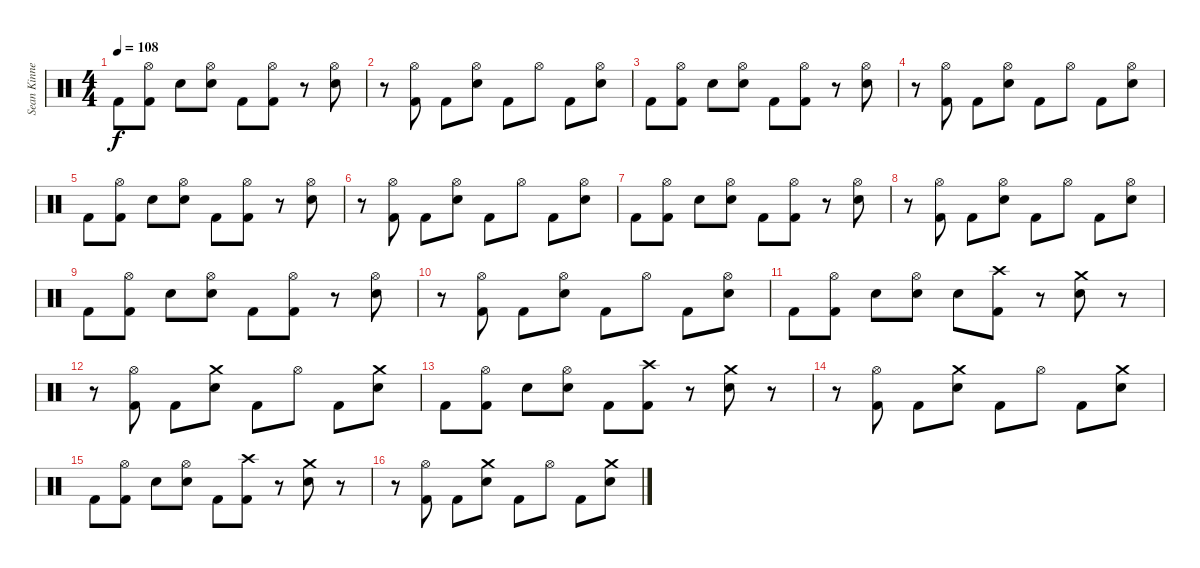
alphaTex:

\track ("Sean Kinney" "Sean Kinne") {instrument percussion}
\staff {score}
\articulation defaults
\ts (4 4)
\tempo 108
\clef neutral
\ks c "Kick (hit) 2".8{dy f}
("Hi-Hat (open)" "Kick (hit) 2").8 "Electric Snare (hit)".8 ("Hi-Hat (open)" "Electric Snare (hit)").8 "Kick (hit) 2".8 ("Hi-Hat (open)" "Kick (hit) 2").8 r.8 ("Hi-Hat (open)" "Electric Snare (hit)").8 |
r.8 ("Hi-Hat (open)" "Kick (hit) 2").8 "Kick (hit) 2".8 ("Hi-Hat (open)" "Electric Snare (hit)").8 "Kick (hit) 2".8 "Hi-Hat (open)".8 "Kick (hit) 2".8 ("Hi-Hat (open)" "Electric Snare (hit)").8 |
"Kick (hit) 2".8 ("Hi-Hat (open)" "Kick (hit) 2").8 "Electric Snare (hit)".8 ("Hi-Hat (open)" "Electric Snare (hit)").8 "Kick (hit) 2".8 ("Hi-Hat (open)" "Kick (hit) 2").8 r.8 ("Hi-Hat (open)" "Electric Snare (hit)").8 |
r.8 ("Hi-Hat (open)" "Kick (hit) 2").8 "Kick (hit) 2".8 ("Hi-Hat (open)" "Electric Snare (hit)").8 "Kick (hit) 2".8 "Hi-Hat (open)".8 "Kick (hit) 2".8 ("Hi-Hat (open)" "Electric Snare (hit)").8 |
"Kick (hit) 2".8 ("Hi-Hat (open)" "Kick (hit) 2").8 "Electric Snare (hit)".8 ("Hi-Hat (open)" "Electric Snare (hit)").8 "Kick (hit) 2".8 ("Hi-Hat (open)" "Kick (hit) 2").8 r.8 ("Hi-Hat (open)" "Electric Snare (hit)").8 |
r.8 ("Hi-Hat (open)" "Kick (hit) 2").8 "Kick (hit) 2".8 ("Hi-Hat (open)" "Electric Snare (hit)").8 "Kick (hit) 2".8 "Hi-Hat (open)".8 "Kick (hit) 2".8 ("Hi-Hat (open)" "Electric Snare (hit)").8 |
"Kick (hit) 2".8 ("Hi-Hat (open)" "Kick (hit) 2").8 "Electric Snare (hit)".8 ("Hi-Hat (open)" "Electric Snare (hit)").8 "Kick (hit) 2".8 ("Hi-Hat (open)" "Kick (hit) 2").8 r.8 ("Hi-Hat (open)" "Electric Snare (hit)").8 |
r.8 ("Hi-Hat (open)" "Kick (hit) 2").8 "Kick (hit) 2".8 ("Hi-Hat (open)" "Electric Snare (hit)").8 "Kick (hit) 2".8 "Hi-Hat (open)".8 "Kick (hit) 2".8 ("Hi-Hat (open)" "Electric Snare (hit)").8 |
"Kick (hit) 2".8 ("Hi-Hat (open)" "Kick (hit) 2").8 "Electric Snare (hit)".8 ("Hi-Hat (open)" "Electric Snare (hit)").8 "Kick (hit) 2".8 ("Hi-Hat (open)" "Kick (hit) 2").8 r.8 ("Hi-Hat (open)" "Electric Snare (hit)").8 |
r.8 ("Hi-Hat (open)" "Kick (hit) 2").8 "Kick (hit) 2".8 ("Hi-Hat (open)" "Electric Snare (hit)").8 "Kick (hit) 2".8 "Hi-Hat (open)".8 "Kick (hit) 2".8 ("Hi-Hat (open)" "Electric Snare (hit)").8 |
"Kick (hit) 2".8 ("Hi-Hat (open)" "Kick (hit) 2").8 "Electric Snare (hit)".8 ("Hi-Hat (open)" "Electric Snare (hit)").8 "Electric Snare (hit)".8 ("Crash high (hit)" "Kick (hit) 2").8 r.8 ("Crash medium (hit)" "Electric Snare (hit)").8 r.8 |
r.8 ("Hi-Hat (open)" "Kick (hit) 2").8 "Kick (hit) 2".8 ("Crash medium (hit)" "Electric Snare (hit)").8 "Kick (hit) 2".8 "Hi-Hat (open)".8 "Kick (hit) 2".8 ("Crash medium (hit)" "Electric Snare (hit)").8 |
"Kick (hit) 2".8 ("Hi-Hat (open)" "Kick (hit) 2").8 "Electric Snare (hit)".8 ("Hi-Hat (open)" "Electric Snare (hit)").8 "Kick (hit) 2".8 ("Crash high (hit)" "Kick (hit) 2").8 r.8 ("Crash medium (hit)" "Electric Snare (hit)").8 r.8 |
r.8 ("Hi-Hat (open)" "Kick (hit) 2").8 "Kick (hit) 2".8 ("Crash medium (hit)" "Electric Snare (hit)").8 "Kick (hit) 2".8 "Hi-Hat (open)".8 "Kick (hit) 2".8 ("Crash medium (hit)" "Electric Snare (hit)").8 |
"Kick (hit) 2".8 ("Hi-Hat (open)" "Kick (hit) 2").8 "Electric Snare (hit)".8 ("Hi-Hat (open)" "Electric Snare (hit)").8 "Kick (hit) 2".8 ("Crash high (hit)" "Kick (hit) 2").8 r.8 ("Crash medium (hit)" "Electric Snare (hit)").8 r.8 |
r.8 ("Hi-Hat (open)" "Kick (hit) 2").8 "Kick (hit) 2".8 ("Crash medium (hit)" "Electric Snare (hit)").8 "Kick (hit) 2".8 "Hi-Hat (open)".8 "Kick (hit) 2".8 ("Crash medium (hit)" "Electric Snare (hit)").8
